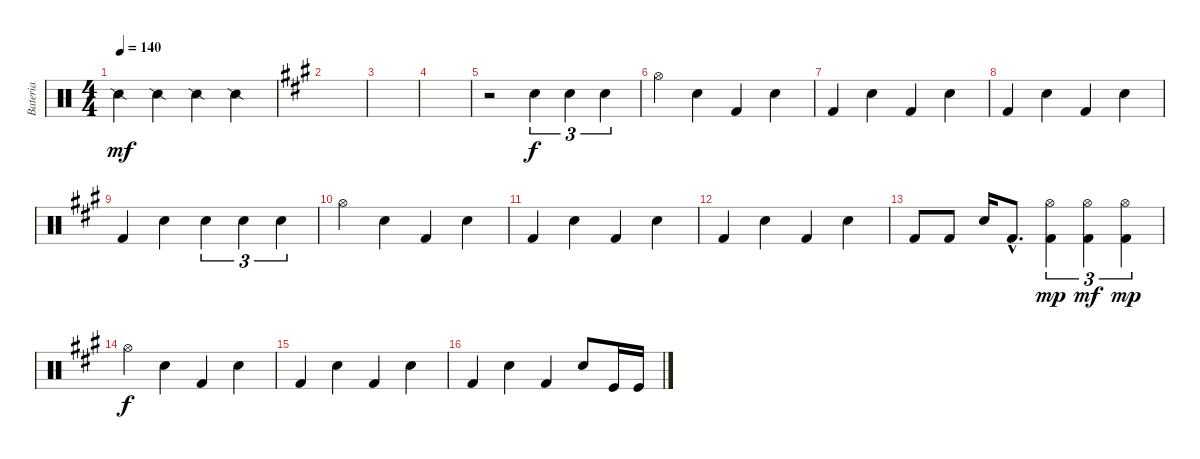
\track ("Bateria" "Bateria") {instrument percussion}
\staff {score}
\articulation defaults
\ts (4 4)
\tempo 140
\clef neutral
\ks c "Snare (side stick) 2".4{dy mf} "Snare (side stick) 2".4 "Snare (side stick) 2".4 "Snare (side stick) 2".4
|
\ks a
|
|
|
r.2 "Electric Snare (hit)".4{tu (3 2) dy f} "Electric Snare (hit)".4{tu (3 2)} "Electric Snare (hit)".4{tu (3 2)} |
"Hi-Hat (open)".4 "Electric Snare (hit)".4 "Kick (hit) 2".4 "Electric Snare (hit)".4 |
"Kick (hit) 2".4 "Electric Snare (hit)".4 "Kick (hit) 2".4 "Electric Snare (hit)".4 |
"Kick (hit) 2".4 "Electric Snare (hit)".4 "Kick (hit) 2".4 "Electric Snare (hit)".4 |
"Kick (hit) 2".4 "Electric Snare (hit)".4 "Electric Snare (hit)".4{tu (3 2)} "Electric Snare (hit)".4{tu (3 2)} "Electric Snare (hit)".4{tu (3 2)} |
"Hi-Hat (open)".4 "Electric Snare (hit)".4 "Kick (hit) 2".4 "Electric Snare (hit)".4 |
"Kick (hit) 2".4 "Electric Snare (hit)".4 "Kick (hit) 2".4 "Electric Snare (hit)".4 |
"Kick (hit) 2".4 "Electric Snare (hit)".4 "Kick (hit) 2".4 "Electric Snare (hit)".4 |
"Kick (hit) 2".8 "Kick (hit) 2".8 "Electric Snare (hit)".16 "Kick (hit) 2"{hac}.8{d} ("Hi-Hat (open)" "Kick (hit) 2").4{tu (3 2) dy mp} ("Hi-Hat (open)" "Kick (hit) 2").4{tu (3 2) dy mf} ("Hi-Hat (open)" "Kick (hit) 2").4{tu (3 2) dy mp} |
"Hi-Hat (open)".4{dy f} "Electric Snare (hit)".4 "Kick (hit) 2".4 "Electric Snare (hit)".4 |
"Kick (hit) 2".4 "Electric Snare (hit)".4 "Kick (hit) 2".4 "Electric Snare (hit)".4 |
"Kick (hit) 2".4 "Electric Snare (hit)".4 "Kick (hit) 2".4 "Electric Snare (hit)".8 "Kick (hit)".16 "Kick (hit)".16
